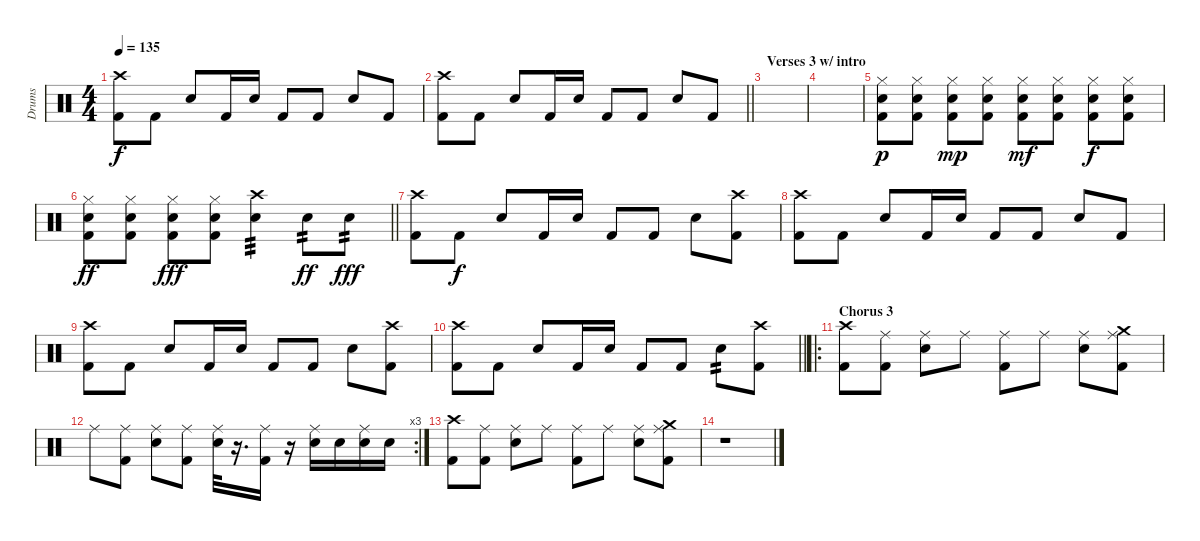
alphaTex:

\track ("Drums" "Drums") {instrument percussion}
\staff {score}
\articulation defaults
\ts (4 4)
\tempo 135
\clef neutral
\ks c
("Kick (hit) 2" "Crash high (hit)").8{dy f} "Kick (hit) 2".8 "Electric Snare (hit)".8 "Kick (hit) 2".16 "Electric Snare (hit)".16 "Kick (hit) 2".8 "Kick (hit) 2".8 "Electric Snare (hit)".8 "Kick (hit) 2".8 |
\barLineRight lightlight
("Kick (hit) 2" "Crash high (hit)").8 "Kick (hit) 2".8 "Electric Snare (hit)".8 "Kick (hit) 2".16 "Electric Snare (hit)".16 "Kick (hit) 2".8 "Kick (hit) 2".8 "Electric Snare (hit)".8 "Kick (hit) 2".8 |
\section ("" "Verses 3 w/ intro")
|
|
("Kick (hit) 2" "Electric Snare (hit)" "Hi-Hat (closed)").8{dy p} ("Kick (hit) 2" "Electric Snare (hit)" "Hi-Hat (closed)").8 ("Kick (hit) 2" "Electric Snare (hit)" "Hi-Hat (closed)").8{dy mp} ("Kick (hit) 2" "Electric Snare (hit)" "Hi-Hat (closed)").8 ("Kick (hit) 2" "Electric Snare (hit)" "Hi-Hat (closed)").8{dy mf} ("Kick (hit) 2" "Electric Snare (hit)" "Hi-Hat (closed)").8 ("Kick (hit) 2" "Electric Snare (hit)" "Hi-Hat (closed)").8{dy f} ("Kick (hit) 2" "Electric Snare (hit)" "Hi-Hat (closed)").8 |
\barLineRight lightlight
("Kick (hit) 2" "Electric Snare (hit)" "Hi-Hat (closed)").8{dy ff} ("Kick (hit) 2" "Electric Snare (hit)" "Hi-Hat (closed)").8 ("Kick (hit) 2" "Electric Snare (hit)" "Hi-Hat (closed)").8{dy fff} ("Kick (hit) 2" "Electric Snare (hit)" "Hi-Hat (closed)").8 ("Electric Snare (hit)" "Crash high (hit)").4{tp 3} "Electric Snare (hit)".8{tp 2 dy ff} "Electric Snare (hit)".8{tp 2 dy fff} |
("Kick (hit) 2" "Crash high (hit)").8 "Kick (hit) 2".8{dy f} "Electric Snare (hit)".8 "Kick (hit) 2".16 "Electric Snare (hit)".16 "Kick (hit) 2".8 "Kick (hit) 2".8 "Electric Snare (hit)".8 ("Kick (hit) 2" "Crash high (hit)").8 |
("Kick (hit) 2" "Crash high (hit)").8 "Kick (hit) 2".8 "Electric Snare (hit)".8 "Kick (hit) 2".16 "Electric Snare (hit)".16 "Kick (hit) 2".8 "Kick (hit) 2".8 "Electric Snare (hit)".8 "Kick (hit) 2".8 |
("Kick (hit) 2" "Crash high (hit)").8 "Kick (hit) 2".8 "Electric Snare (hit)".8 "Kick (hit) 2".16 "Electric Snare (hit)".16 "Kick (hit) 2".8 "Kick (hit) 2".8 "Electric Snare (hit)".8 ("Kick (hit) 2" "Crash high (hit)").8 |
\barLineRight lightlight
("Kick (hit) 2" "Crash high (hit)").8 "Kick (hit) 2".8 "Electric Snare (hit)".8 "Kick (hit) 2".16 "Electric Snare (hit)".16 "Kick (hit) 2".8 "Kick (hit) 2".8 "Electric Snare (hit)".8{tp 2} ("Kick (hit) 2" "Crash high (hit)").8 |
\ro
\section ("" "Chorus 3")
("Crash high (hit)" "Kick (hit) 2").8 ("Ride (middle)" "Kick (hit) 2").8 ("Ride (middle)" "Electric Snare (hit)").8 "Ride (middle)".8 ("Ride (middle)" "Kick (hit) 2").8 "Ride (middle)".8 ("Ride (middle)" "Electric Snare (hit)").8 ("Crash medium (hit)" "Ride (middle)" "Kick (hit) 2").8 |
\rc 3 "Ride (middle)".8
("Ride (middle)" "Kick (hit) 2").8 ("Ride (middle)" "Electric Snare (hit)").8 ("Ride (middle)" "Kick (hit) 2").8 ("Ride (middle)" "Electric Snare (hit)").32 r.16{d} ("Ride (middle)" "Kick (hit) 2").16 r.16 ("Ride (middle)" "Electric Snare (hit)").16 "Electric Snare (hit)".16 ("Ride (middle)" "Electric Snare (hit)").16 "Electric Snare (hit)".16 |
("Crash high (hit)" "Kick (hit) 2").8 ("Ride (middle)" "Kick (hit) 2").8 ("Ride (middle)" "Electric Snare (hit)").8 "Ride (middle)".8 ("Ride (middle)" "Kick (hit) 2").8 "Ride (middle)".8 ("Ride (middle)" "Electric Snare (hit)").8 ("Crash medium (hit)" "Ride (middle)" "Kick (hit) 2").8 |
r.1
